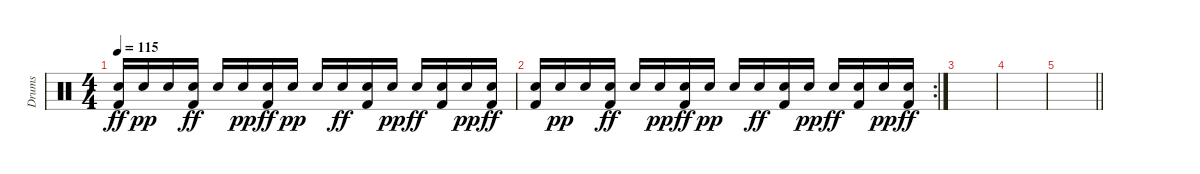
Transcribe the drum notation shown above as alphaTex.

\track ("Drums" "Drums") {instrument percussion}
\staff {score}
\articulation defaults
\ts (4 4)
\tempo 115
\clef neutral
\ks c
("Snare (hit) 2" "Kick (hit) 2").16{dy ff} "Snare (hit) 2".16{dy pp} "Snare (hit) 2".16 ("Snare (hit) 2" "Kick (hit) 2").16{dy ff} "Snare (hit) 2".16 "Snare (hit) 2".16{dy pp} ("Snare (hit) 2" "Kick (hit) 2").16{dy ff} "Snare (hit) 2".16{dy pp} "Snare (hit) 2".16 "Snare (hit) 2".16{dy ff} ("Snare (hit) 2" "Kick (hit) 2").16 "Snare (hit) 2".16{dy pp} "Snare (hit) 2".16{dy ff} ("Snare (hit) 2" "Kick (hit) 2").16 "Snare (hit) 2".16{dy pp} ("Snare (hit) 2" "Kick (hit) 2").16{dy ff} |
\rc 2
("Snare (hit) 2" "Kick (hit) 2").16 "Snare (hit) 2".16{dy pp} "Snare (hit) 2".16 ("Snare (hit) 2" "Kick (hit) 2").16{dy ff} "Snare (hit) 2".16 "Snare (hit) 2".16{dy pp} ("Snare (hit) 2" "Kick (hit) 2").16{dy ff} "Snare (hit) 2".16{dy pp} "Snare (hit) 2".16 "Snare (hit) 2".16{dy ff} ("Snare (hit) 2" "Kick (hit) 2").16 "Snare (hit) 2".16{dy pp} "Snare (hit) 2".16{dy ff} ("Snare (hit) 2" "Kick (hit) 2").16 "Snare (hit) 2".16{dy pp} ("Snare (hit) 2" "Kick (hit) 2").16{dy ff} |
|
|
\barLineRight lightlight
